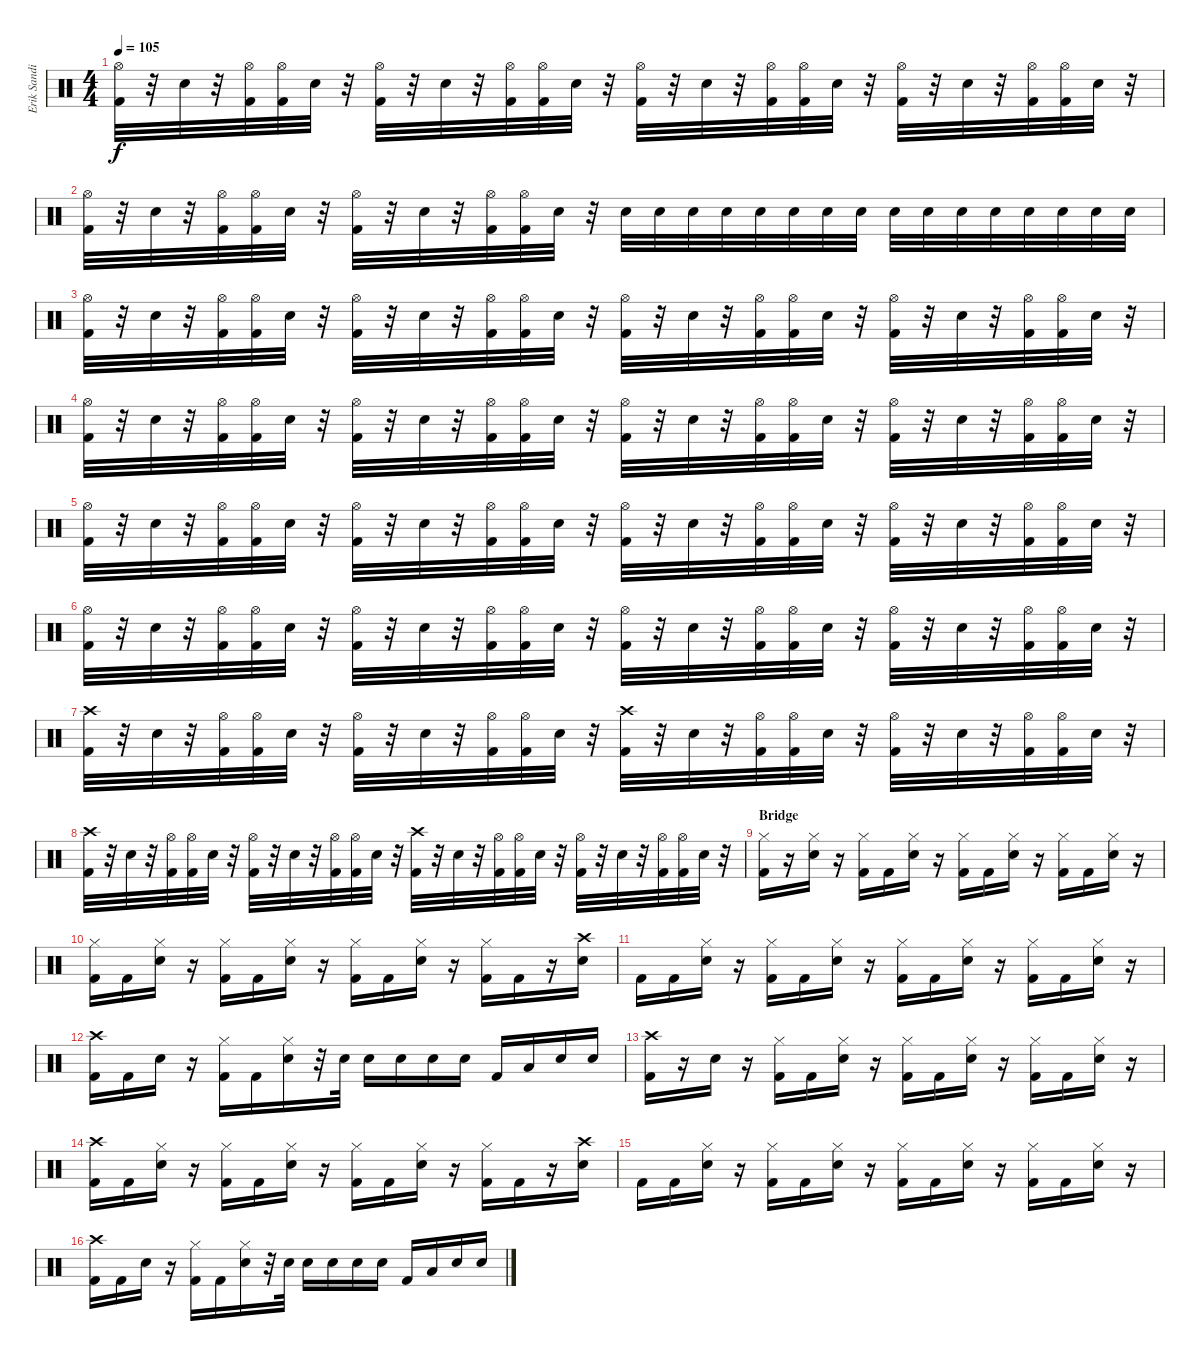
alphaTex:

\track ("Erik Sandin" "Erik Sandi") {instrument percussion}
\staff {score}
\articulation defaults
\ts (4 4)
\tempo 105
\clef neutral
\ks c
("Hi-Hat (open)" "Kick (hit) 2").32{dy f} r.32 "Snare (hit) 2".32 r.32 ("Hi-Hat (open)" "Kick (hit) 2").32 ("Hi-Hat (open)" "Kick (hit) 2").32 "Snare (hit) 2".32 r.32 ("Hi-Hat (open)" "Kick (hit) 2").32 r.32 "Snare (hit) 2".32 r.32 ("Hi-Hat (open)" "Kick (hit) 2").32 ("Hi-Hat (open)" "Kick (hit) 2").32 "Snare (hit) 2".32 r.32 ("Hi-Hat (open)" "Kick (hit) 2").32 r.32 "Snare (hit) 2".32 r.32 ("Hi-Hat (open)" "Kick (hit) 2").32 ("Hi-Hat (open)" "Kick (hit) 2").32 "Snare (hit) 2".32 r.32 ("Hi-Hat (open)" "Kick (hit) 2").32 r.32 "Snare (hit) 2".32 r.32 ("Hi-Hat (open)" "Kick (hit) 2").32 ("Hi-Hat (open)" "Kick (hit) 2").32 "Snare (hit) 2".32 r.32 |
("Hi-Hat (open)" "Kick (hit) 2").32 r.32 "Snare (hit) 2".32 r.32 ("Hi-Hat (open)" "Kick (hit) 2").32 ("Hi-Hat (open)" "Kick (hit) 2").32 "Snare (hit) 2".32 r.32 ("Hi-Hat (open)" "Kick (hit) 2").32 r.32 "Snare (hit) 2".32 r.32 ("Hi-Hat (open)" "Kick (hit) 2").32 ("Hi-Hat (open)" "Kick (hit) 2").32 "Snare (hit) 2".32 r.32 "Snare (hit) 2".32 "Snare (hit) 2".32 "Snare (hit) 2".32 "Snare (hit) 2".32 "Snare (hit) 2".32 "Snare (hit) 2".32 "Snare (hit) 2".32 "Snare (hit) 2".32 "Snare (hit) 2".32 "Snare (hit) 2".32 "Snare (hit) 2".32 "Snare (hit) 2".32 "Snare (hit) 2".32 "Snare (hit) 2".32 "Snare (hit) 2".32 "Snare (hit) 2".32 |
("Hi-Hat (open)" "Kick (hit) 2").32 r.32 "Snare (hit) 2".32 r.32 ("Hi-Hat (open)" "Kick (hit) 2").32 ("Hi-Hat (open)" "Kick (hit) 2").32 "Snare (hit) 2".32 r.32 ("Hi-Hat (open)" "Kick (hit) 2").32 r.32 "Snare (hit) 2".32 r.32 ("Hi-Hat (open)" "Kick (hit) 2").32 ("Hi-Hat (open)" "Kick (hit) 2").32 "Snare (hit) 2".32 r.32 ("Hi-Hat (open)" "Kick (hit) 2").32 r.32 "Snare (hit) 2".32 r.32 ("Hi-Hat (open)" "Kick (hit) 2").32 ("Hi-Hat (open)" "Kick (hit) 2").32 "Snare (hit) 2".32 r.32 ("Hi-Hat (open)" "Kick (hit) 2").32 r.32 "Snare (hit) 2".32 r.32 ("Hi-Hat (open)" "Kick (hit) 2").32 ("Hi-Hat (open)" "Kick (hit) 2").32 "Snare (hit) 2".32 r.32 |
("Hi-Hat (open)" "Kick (hit) 2").32 r.32 "Snare (hit) 2".32 r.32 ("Hi-Hat (open)" "Kick (hit) 2").32 ("Hi-Hat (open)" "Kick (hit) 2").32 "Snare (hit) 2".32 r.32 ("Hi-Hat (open)" "Kick (hit) 2").32 r.32 "Snare (hit) 2".32 r.32 ("Hi-Hat (open)" "Kick (hit) 2").32 ("Hi-Hat (open)" "Kick (hit) 2").32 "Snare (hit) 2".32 r.32 ("Hi-Hat (open)" "Kick (hit) 2").32 r.32 "Snare (hit) 2".32 r.32 ("Hi-Hat (open)" "Kick (hit) 2").32 ("Hi-Hat (open)" "Kick (hit) 2").32 "Snare (hit) 2".32 r.32 ("Hi-Hat (open)" "Kick (hit) 2").32 r.32 "Snare (hit) 2".32 r.32 ("Hi-Hat (open)" "Kick (hit) 2").32 ("Hi-Hat (open)" "Kick (hit) 2").32 "Snare (hit) 2".32 r.32 |
("Hi-Hat (open)" "Kick (hit) 2").32 r.32 "Snare (hit) 2".32 r.32 ("Hi-Hat (open)" "Kick (hit) 2").32 ("Hi-Hat (open)" "Kick (hit) 2").32 "Snare (hit) 2".32 r.32 ("Hi-Hat (open)" "Kick (hit) 2").32 r.32 "Snare (hit) 2".32 r.32 ("Hi-Hat (open)" "Kick (hit) 2").32 ("Hi-Hat (open)" "Kick (hit) 2").32 "Snare (hit) 2".32 r.32 ("Hi-Hat (open)" "Kick (hit) 2").32 r.32 "Snare (hit) 2".32 r.32 ("Hi-Hat (open)" "Kick (hit) 2").32 ("Hi-Hat (open)" "Kick (hit) 2").32 "Snare (hit) 2".32 r.32 ("Hi-Hat (open)" "Kick (hit) 2").32 r.32 "Snare (hit) 2".32 r.32 ("Hi-Hat (open)" "Kick (hit) 2").32 ("Hi-Hat (open)" "Kick (hit) 2").32 "Snare (hit) 2".32 r.32 |
("Hi-Hat (open)" "Kick (hit) 2").32 r.32 "Snare (hit) 2".32 r.32 ("Hi-Hat (open)" "Kick (hit) 2").32 ("Hi-Hat (open)" "Kick (hit) 2").32 "Snare (hit) 2".32 r.32 ("Hi-Hat (open)" "Kick (hit) 2").32 r.32 "Snare (hit) 2".32 r.32 ("Hi-Hat (open)" "Kick (hit) 2").32 ("Hi-Hat (open)" "Kick (hit) 2").32 "Snare (hit) 2".32 r.32 ("Hi-Hat (open)" "Kick (hit) 2").32 r.32 "Snare (hit) 2".32 r.32 ("Hi-Hat (open)" "Kick (hit) 2").32 ("Hi-Hat (open)" "Kick (hit) 2").32 "Snare (hit) 2".32 r.32 ("Hi-Hat (open)" "Kick (hit) 2").32 r.32 "Snare (hit) 2".32 r.32 ("Hi-Hat (open)" "Kick (hit) 2").32 ("Hi-Hat (open)" "Kick (hit) 2").32 "Snare (hit) 2".32 r.32 |
("Crash high (hit)" "Kick (hit) 2").32 r.32 "Snare (hit) 2".32 r.32 ("Hi-Hat (open)" "Kick (hit) 2").32 ("Hi-Hat (open)" "Kick (hit) 2").32 "Snare (hit) 2".32 r.32 ("Hi-Hat (open)" "Kick (hit) 2").32 r.32 "Snare (hit) 2".32 r.32 ("Hi-Hat (open)" "Kick (hit) 2").32 ("Hi-Hat (open)" "Kick (hit) 2").32 "Snare (hit) 2".32 r.32 ("Crash high (hit)" "Kick (hit) 2").32 r.32 "Snare (hit) 2".32 r.32 ("Hi-Hat (open)" "Kick (hit) 2").32 ("Hi-Hat (open)" "Kick (hit) 2").32 "Snare (hit) 2".32 r.32 ("Hi-Hat (open)" "Kick (hit) 2").32 r.32 "Snare (hit) 2".32 r.32 ("Hi-Hat (open)" "Kick (hit) 2").32 ("Hi-Hat (open)" "Kick (hit) 2").32 "Snare (hit) 2".32 r.32 |
("Crash high (hit)" "Kick (hit) 2").32 r.32 "Snare (hit) 2".32 r.32 ("Hi-Hat (open)" "Kick (hit) 2").32 ("Hi-Hat (open)" "Kick (hit) 2").32 "Snare (hit) 2".32 r.32 ("Hi-Hat (open)" "Kick (hit) 2").32 r.32 "Snare (hit) 2".32 r.32 ("Hi-Hat (open)" "Kick (hit) 2").32 ("Hi-Hat (open)" "Kick (hit) 2").32 "Snare (hit) 2".32 r.32 ("Crash high (hit)" "Kick (hit) 2").32 r.32 "Snare (hit) 2".32 r.32 ("Hi-Hat (open)" "Kick (hit) 2").32 ("Hi-Hat (open)" "Kick (hit) 2").32 "Snare (hit) 2".32 r.32 ("Hi-Hat (open)" "Kick (hit) 2").32 r.32 "Snare (hit) 2".32 r.32 ("Hi-Hat (open)" "Kick (hit) 2").32 ("Hi-Hat (open)" "Kick (hit) 2").32 "Snare (hit) 2".32 r.32 |
\section ("" "Bridge")
("Hi-Hat (closed)" "Kick (hit) 2").16 r.16 ("Hi-Hat (closed)" "Snare (hit) 2").16 r.16 ("Hi-Hat (closed)" "Kick (hit) 2").16 "Kick (hit) 2".16 ("Hi-Hat (closed)" "Snare (hit) 2").16 r.16 ("Hi-Hat (closed)" "Kick (hit) 2").16 "Kick (hit) 2".16 ("Hi-Hat (closed)" "Snare (hit) 2").16 r.16 ("Hi-Hat (closed)" "Kick (hit) 2").16 "Kick (hit) 2".16 ("Hi-Hat (closed)" "Snare (hit) 2").16 r.16 |
("Hi-Hat (closed)" "Kick (hit) 2").16 "Kick (hit) 2".16 ("Hi-Hat (closed)" "Snare (hit) 2").16 r.16 ("Hi-Hat (closed)" "Kick (hit) 2").16 "Kick (hit) 2".16 ("Hi-Hat (closed)" "Snare (hit) 2").16 r.16 ("Hi-Hat (closed)" "Kick (hit) 2").16 "Kick (hit) 2".16 ("Hi-Hat (closed)" "Snare (hit) 2").16 r.16 ("Hi-Hat (closed)" "Kick (hit) 2").16 "Kick (hit) 2".16 r.16 ("Crash high (hit)" "Snare (hit) 2").16 |
"Kick (hit) 2".16 "Kick (hit) 2".16 ("Hi-Hat (closed)" "Snare (hit) 2").16 r.16 ("Hi-Hat (closed)" "Kick (hit) 2").16 "Kick (hit) 2".16 ("Hi-Hat (closed)" "Snare (hit) 2").16 r.16 ("Hi-Hat (closed)" "Kick (hit) 2").16 "Kick (hit) 2".16 ("Hi-Hat (closed)" "Snare (hit) 2").16 r.16 ("Hi-Hat (closed)" "Kick (hit) 2").16 "Kick (hit) 2".16 ("Hi-Hat (closed)" "Snare (hit) 2").16 r.16 |
("Crash high (hit)" "Kick (hit) 2").16 "Kick (hit) 2".16 "Snare (hit) 2".16 r.16 ("Hi-Hat (closed)" "Kick (hit) 2").16 "Kick (hit) 2".16 ("Hi-Hat (closed)" "Snare (hit) 2").16 r.32 "Snare (hit) 2".32 "Snare (hit) 2".16 "Snare (hit) 2".16 "Snare (hit) 2".16 "Snare (hit) 2".16 "Kick (hit) 2".16 "Low Tom (hit)".16 "Snare (hit) 2".16 "Snare (hit) 2".16 |
("Crash high (hit)" "Kick (hit) 2").16 r.16 "Snare (hit) 2".16 r.16 ("Hi-Hat (closed)" "Kick (hit) 2").16 "Kick (hit) 2".16 ("Hi-Hat (closed)" "Snare (hit) 2").16 r.16 ("Hi-Hat (closed)" "Kick (hit) 2").16 "Kick (hit) 2".16 ("Hi-Hat (closed)" "Snare (hit) 2").16 r.16 ("Hi-Hat (closed)" "Kick (hit) 2").16 "Kick (hit) 2".16 ("Hi-Hat (closed)" "Snare (hit) 2").16 r.16 |
("Crash high (hit)" "Kick (hit) 2").16 "Kick (hit) 2".16 ("Hi-Hat (closed)" "Snare (hit) 2").16 r.16 ("Hi-Hat (closed)" "Kick (hit) 2").16 "Kick (hit) 2".16 ("Hi-Hat (closed)" "Snare (hit) 2").16 r.16 ("Hi-Hat (closed)" "Kick (hit) 2").16 "Kick (hit) 2".16 ("Hi-Hat (closed)" "Snare (hit) 2").16 r.16 ("Hi-Hat (closed)" "Kick (hit) 2").16 "Kick (hit) 2".16 r.16 ("Crash high (hit)" "Snare (hit) 2").16 |
"Kick (hit) 2".16 "Kick (hit) 2".16 ("Hi-Hat (closed)" "Snare (hit) 2").16 r.16 ("Hi-Hat (closed)" "Kick (hit) 2").16 "Kick (hit) 2".16 ("Hi-Hat (closed)" "Snare (hit) 2").16 r.16 ("Hi-Hat (closed)" "Kick (hit) 2").16 "Kick (hit) 2".16 ("Hi-Hat (closed)" "Snare (hit) 2").16 r.16 ("Hi-Hat (closed)" "Kick (hit) 2").16 "Kick (hit) 2".16 ("Hi-Hat (closed)" "Snare (hit) 2").16 r.16 |
("Crash high (hit)" "Kick (hit) 2").16 "Kick (hit) 2".16 "Snare (hit) 2".16 r.16 ("Hi-Hat (closed)" "Kick (hit) 2").16 "Kick (hit) 2".16 ("Hi-Hat (closed)" "Snare (hit) 2").16 r.32 "Snare (hit) 2".32 "Snare (hit) 2".16 "Snare (hit) 2".16 "Snare (hit) 2".16 "Snare (hit) 2".16 "Kick (hit) 2".16 "Low Tom (hit)".16 "Snare (hit) 2".16 "Snare (hit) 2".16
